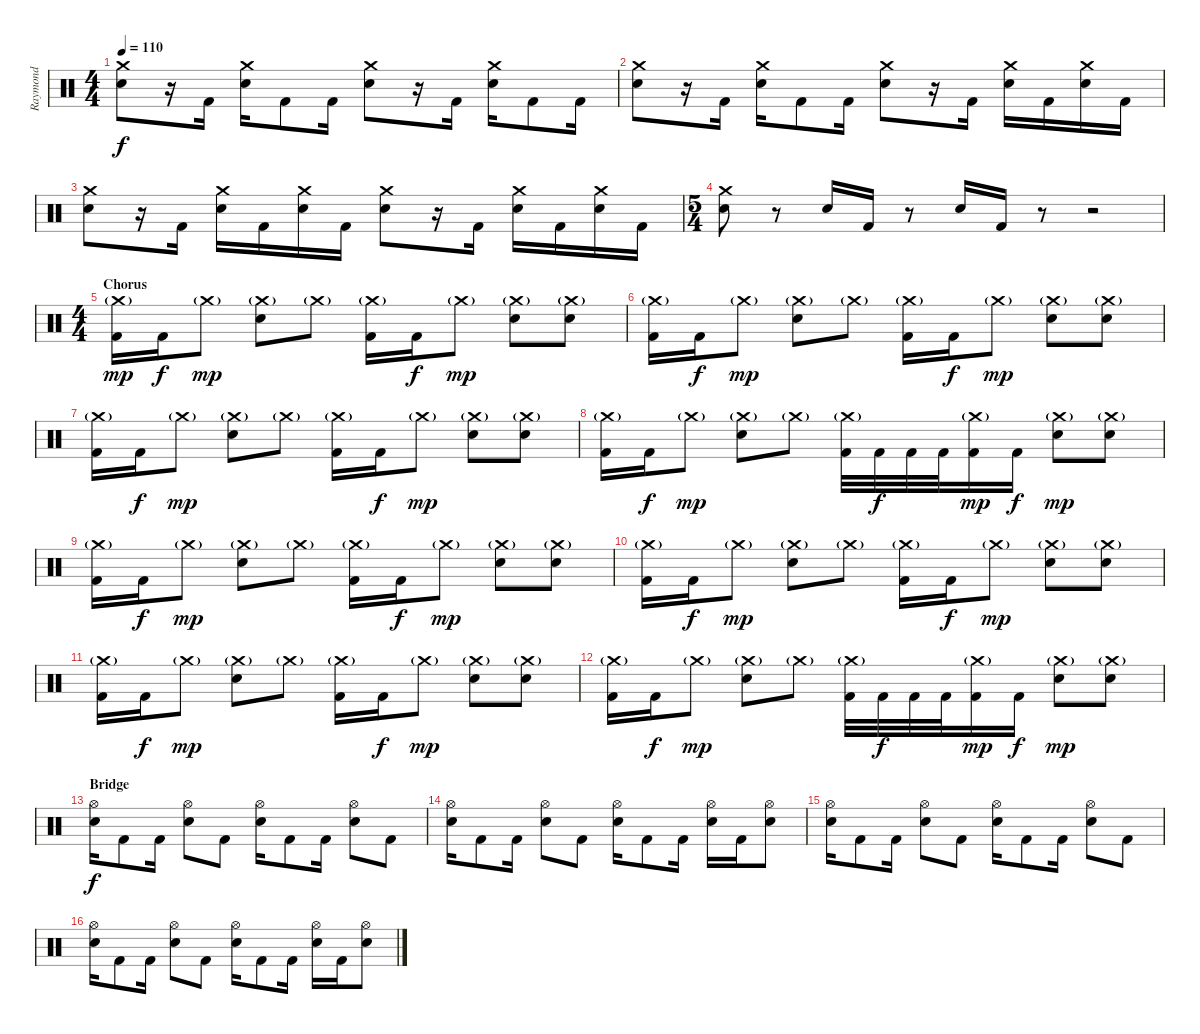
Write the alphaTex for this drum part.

\track ("Raymond" "Raymond") {instrument percussion}
\staff {score}
\articulation defaults
\ts (4 4)
\tempo 110
\clef neutral
\ks c
("Crash medium (hit)" "Electric Snare (hit)").8{dy f} r.16 "Kick (hit) 2".16 ("Crash medium (hit)" "Electric Snare (hit)").16 "Kick (hit) 2".8 "Kick (hit) 2".16 ("Crash medium (hit)" "Electric Snare (hit)").8 r.16 "Kick (hit) 2".16 ("Crash medium (hit)" "Electric Snare (hit)").16 "Kick (hit) 2".8 "Kick (hit) 2".16 |
("Crash medium (hit)" "Electric Snare (hit)").8 r.16 "Kick (hit) 2".16 ("Crash medium (hit)" "Electric Snare (hit)").16 "Kick (hit) 2".8 "Kick (hit) 2".16 ("Crash medium (hit)" "Electric Snare (hit)").8 r.16 "Kick (hit) 2".16 ("Crash medium (hit)" "Electric Snare (hit)").16 "Kick (hit) 2".16 ("Crash medium (hit)" "Electric Snare (hit)").16 "Kick (hit) 2".16 |
("Crash medium (hit)" "Electric Snare (hit)").8 r.16 "Kick (hit) 2".16 ("Crash medium (hit)" "Electric Snare (hit)").16 "Kick (hit) 2".16 ("Crash medium (hit)" "Electric Snare (hit)").16 "Kick (hit) 2".16 ("Crash medium (hit)" "Electric Snare (hit)").8 r.16 "Kick (hit) 2".16 ("Crash medium (hit)" "Electric Snare (hit)").16 "Kick (hit) 2".16 ("Crash medium (hit)" "Electric Snare (hit)").16 "Kick (hit) 2".16 |
\ts (5 4)
("Crash medium (hit)" "Electric Snare (hit)").8 r.8 "Electric Snare (hit)".16 "Kick (hit) 2".16 r.8 "Electric Snare (hit)".16 "Kick (hit) 2".16 r.8 r.2 |
\ts (4 4)
\section ("" "Chorus")
("Crash medium (hit)"{g} "Kick (hit) 2").16{dy mp} "Kick (hit) 2".16{dy f} "Crash medium (hit)"{g}.8{dy mp} ("Crash medium (hit)"{g} "Electric Snare (hit)").8 "Crash medium (hit)"{g}.8 ("Crash medium (hit)"{g} "Kick (hit) 2").16 "Kick (hit) 2".16{dy f} "Crash medium (hit)"{g}.8{dy mp} ("Crash medium (hit)"{g} "Electric Snare (hit)").8 ("Crash medium (hit)"{g} "Electric Snare (hit)").8 |
("Crash medium (hit)"{g} "Kick (hit) 2").16 "Kick (hit) 2".16{dy f} "Crash medium (hit)"{g}.8{dy mp} ("Crash medium (hit)"{g} "Electric Snare (hit)").8 "Crash medium (hit)"{g}.8 ("Crash medium (hit)"{g} "Kick (hit) 2").16 "Kick (hit) 2".16{dy f} "Crash medium (hit)"{g}.8{dy mp} ("Crash medium (hit)"{g} "Electric Snare (hit)").8 ("Crash medium (hit)"{g} "Electric Snare (hit)").8 |
("Crash medium (hit)"{g} "Kick (hit) 2").16 "Kick (hit) 2".16{dy f} "Crash medium (hit)"{g}.8{dy mp} ("Crash medium (hit)"{g} "Electric Snare (hit)").8 "Crash medium (hit)"{g}.8 ("Crash medium (hit)"{g} "Kick (hit) 2").16 "Kick (hit) 2".16{dy f} "Crash medium (hit)"{g}.8{dy mp} ("Crash medium (hit)"{g} "Electric Snare (hit)").8 ("Crash medium (hit)"{g} "Electric Snare (hit)").8 |
("Crash medium (hit)"{g} "Kick (hit) 2").16 "Kick (hit) 2".16{dy f} "Crash medium (hit)"{g}.8{dy mp} ("Crash medium (hit)"{g} "Electric Snare (hit)").8 "Crash medium (hit)"{g}.8 ("Crash medium (hit)"{g} "Kick (hit) 2").32 "Kick (hit) 2".32{dy f} "Kick (hit) 2".32 "Kick (hit) 2".32 ("Crash medium (hit)"{g} "Kick (hit) 2").16{dy mp} "Kick (hit) 2".16{dy f} ("Crash medium (hit)"{g} "Electric Snare (hit)").8{dy mp} ("Crash medium (hit)"{g} "Electric Snare (hit)").8 |
("Crash medium (hit)"{g} "Kick (hit) 2").16 "Kick (hit) 2".16{dy f} "Crash medium (hit)"{g}.8{dy mp} ("Crash medium (hit)"{g} "Electric Snare (hit)").8 "Crash medium (hit)"{g}.8 ("Crash medium (hit)"{g} "Kick (hit) 2").16 "Kick (hit) 2".16{dy f} "Crash medium (hit)"{g}.8{dy mp} ("Crash medium (hit)"{g} "Electric Snare (hit)").8 ("Crash medium (hit)"{g} "Electric Snare (hit)").8 |
("Crash medium (hit)"{g} "Kick (hit) 2").16 "Kick (hit) 2".16{dy f} "Crash medium (hit)"{g}.8{dy mp} ("Crash medium (hit)"{g} "Electric Snare (hit)").8 "Crash medium (hit)"{g}.8 ("Crash medium (hit)"{g} "Kick (hit) 2").16 "Kick (hit) 2".16{dy f} "Crash medium (hit)"{g}.8{dy mp} ("Crash medium (hit)"{g} "Electric Snare (hit)").8 ("Crash medium (hit)"{g} "Electric Snare (hit)").8 |
("Crash medium (hit)"{g} "Kick (hit) 2").16 "Kick (hit) 2".16{dy f} "Crash medium (hit)"{g}.8{dy mp} ("Crash medium (hit)"{g} "Electric Snare (hit)").8 "Crash medium (hit)"{g}.8 ("Crash medium (hit)"{g} "Kick (hit) 2").16 "Kick (hit) 2".16{dy f} "Crash medium (hit)"{g}.8{dy mp} ("Crash medium (hit)"{g} "Electric Snare (hit)").8 ("Crash medium (hit)"{g} "Electric Snare (hit)").8 |
("Crash medium (hit)"{g} "Kick (hit) 2").16 "Kick (hit) 2".16{dy f} "Crash medium (hit)"{g}.8{dy mp} ("Crash medium (hit)"{g} "Electric Snare (hit)").8 "Crash medium (hit)"{g}.8 ("Crash medium (hit)"{g} "Kick (hit) 2").32 "Kick (hit) 2".32{dy f} "Kick (hit) 2".32 "Kick (hit) 2".32 ("Crash medium (hit)"{g} "Kick (hit) 2").16{dy mp} "Kick (hit) 2".16{dy f} ("Crash medium (hit)"{g} "Electric Snare (hit)").8{dy mp} ("Crash medium (hit)"{g} "Electric Snare (hit)").8 |
\section ("" "Bridge")
("Hi-Hat (open)" "Electric Snare (hit)").16{dy f} "Kick (hit) 2".8 "Kick (hit) 2".16 ("Hi-Hat (open)" "Electric Snare (hit)").8 "Kick (hit) 2".8 ("Hi-Hat (open)" "Electric Snare (hit)").16 "Kick (hit) 2".8 "Kick (hit) 2".16 ("Hi-Hat (open)" "Electric Snare (hit)").8 "Kick (hit) 2".8 |
("Hi-Hat (open)" "Electric Snare (hit)").16 "Kick (hit) 2".8 "Kick (hit) 2".16 ("Hi-Hat (open)" "Electric Snare (hit)").8 "Kick (hit) 2".8 ("Hi-Hat (open)" "Electric Snare (hit)").16 "Kick (hit) 2".8 "Kick (hit) 2".16 ("Hi-Hat (open)" "Electric Snare (hit)").16 "Kick (hit) 2".16 ("Hi-Hat (open)" "Electric Snare (hit)").8 |
("Hi-Hat (open)" "Electric Snare (hit)").16 "Kick (hit) 2".8 "Kick (hit) 2".16 ("Hi-Hat (open)" "Electric Snare (hit)").8 "Kick (hit) 2".8 ("Hi-Hat (open)" "Electric Snare (hit)").16 "Kick (hit) 2".8 "Kick (hit) 2".16 ("Hi-Hat (open)" "Electric Snare (hit)").8 "Kick (hit) 2".8 |
("Hi-Hat (open)" "Electric Snare (hit)").16 "Kick (hit) 2".8 "Kick (hit) 2".16 ("Hi-Hat (open)" "Electric Snare (hit)").8 "Kick (hit) 2".8 ("Hi-Hat (open)" "Electric Snare (hit)").16 "Kick (hit) 2".8 "Kick (hit) 2".16 ("Hi-Hat (open)" "Electric Snare (hit)").16 "Kick (hit) 2".16 ("Hi-Hat (open)" "Electric Snare (hit)").8
